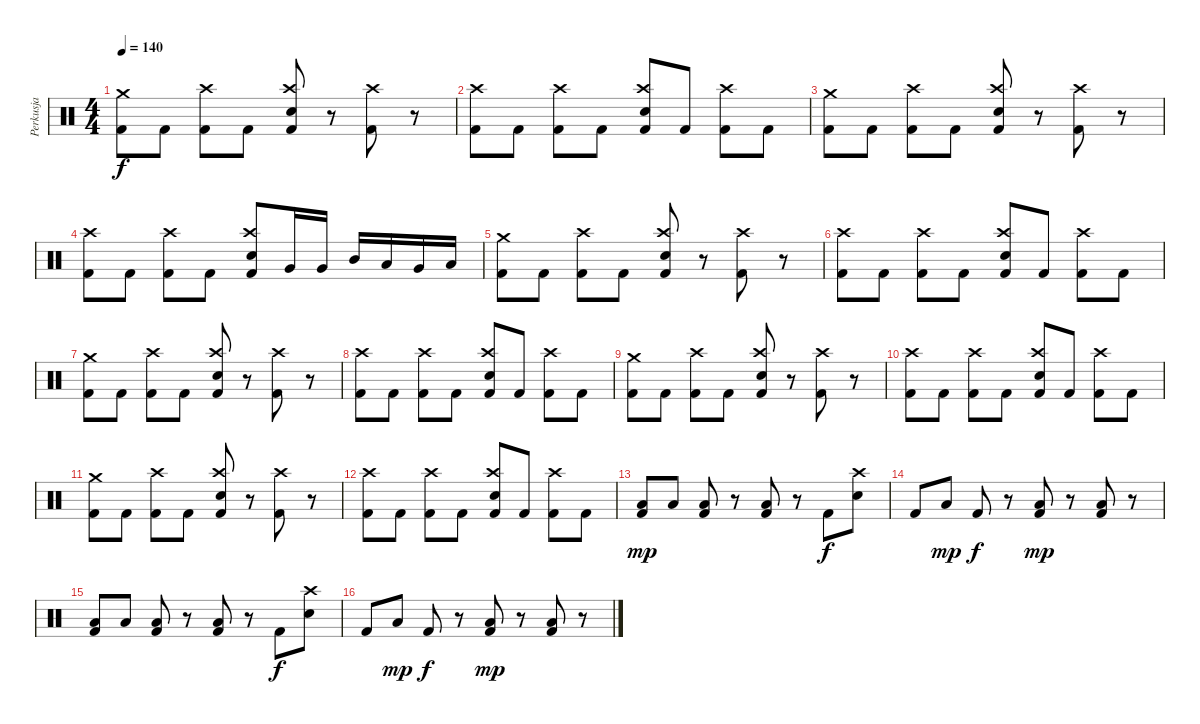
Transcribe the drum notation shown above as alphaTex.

\track ("Perkusja" "Perkusja") {instrument percussion}
\staff {score}
\articulation defaults
\ts (4 4)
\tempo 140
\clef neutral
\ks c
("Crash medium (hit)" "Kick (hit) 2").8{dy f} "Kick (hit) 2".8 ("Crash high (hit)" "Kick (hit) 2").8 "Kick (hit) 2".8 ("Crash high (hit)" "Electric Snare (hit)" "Kick (hit) 2").8 r.8 ("Crash high (hit)" "Kick (hit) 2").8 r.8 |
("Crash high (hit)" "Kick (hit) 2").8 "Kick (hit) 2".8 ("Crash high (hit)" "Kick (hit) 2").8 "Kick (hit) 2".8 ("Crash high (hit)" "Electric Snare (hit)" "Kick (hit) 2").8 "Kick (hit) 2".8 ("Crash high (hit)" "Kick (hit) 2").8 "Kick (hit) 2".8 |
("Crash medium (hit)" "Kick (hit) 2").8 "Kick (hit) 2".8 ("Crash high (hit)" "Kick (hit) 2").8 "Kick (hit) 2".8 ("Crash high (hit)" "Electric Snare (hit)" "Kick (hit) 2").8 r.8 ("Crash high (hit)" "Kick (hit) 2").8 r.8 |
("Crash high (hit)" "Kick (hit) 2").8 "Kick (hit) 2".8 ("Crash high (hit)" "Kick (hit) 2").8 "Kick (hit) 2".8 ("Crash high (hit)" "Electric Snare (hit)" "Kick (hit) 2").8 "Very Low Tom (hit)".16 "Very Low Tom (hit)".16 "Mid Tom (hit)".16 "Low Tom (hit)".16 "Very Low Tom (hit)".16 "Low Floor Tom (hit)".16 |
("Crash medium (hit)" "Kick (hit) 2").8 "Kick (hit) 2".8 ("Crash high (hit)" "Kick (hit) 2").8 "Kick (hit) 2".8 ("Crash high (hit)" "Electric Snare (hit)" "Kick (hit) 2").8 r.8 ("Crash high (hit)" "Kick (hit) 2").8 r.8 |
("Crash high (hit)" "Kick (hit) 2").8 "Kick (hit) 2".8 ("Crash high (hit)" "Kick (hit) 2").8 "Kick (hit) 2".8 ("Crash high (hit)" "Electric Snare (hit)" "Kick (hit) 2").8 "Kick (hit) 2".8 ("Crash high (hit)" "Kick (hit) 2").8 "Kick (hit) 2".8 |
("Crash medium (hit)" "Kick (hit) 2").8 "Kick (hit) 2".8 ("Crash high (hit)" "Kick (hit) 2").8 "Kick (hit) 2".8 ("Crash high (hit)" "Electric Snare (hit)" "Kick (hit) 2").8 r.8 ("Crash high (hit)" "Kick (hit) 2").8 r.8 |
("Crash high (hit)" "Kick (hit) 2").8 "Kick (hit) 2".8 ("Crash high (hit)" "Kick (hit) 2").8 "Kick (hit) 2".8 ("Crash high (hit)" "Electric Snare (hit)" "Kick (hit) 2").8 "Kick (hit) 2".8 ("Crash high (hit)" "Kick (hit) 2").8 "Kick (hit) 2".8 |
("Crash medium (hit)" "Kick (hit) 2").8 "Kick (hit) 2".8 ("Crash high (hit)" "Kick (hit) 2").8 "Kick (hit) 2".8 ("Crash high (hit)" "Electric Snare (hit)" "Kick (hit) 2").8 r.8 ("Crash high (hit)" "Kick (hit) 2").8 r.8 |
("Crash high (hit)" "Kick (hit) 2").8 "Kick (hit) 2".8 ("Crash high (hit)" "Kick (hit) 2").8 "Kick (hit) 2".8 ("Crash high (hit)" "Electric Snare (hit)" "Kick (hit) 2").8 "Kick (hit) 2".8 ("Crash high (hit)" "Kick (hit) 2").8 "Kick (hit) 2".8 |
("Crash medium (hit)" "Kick (hit) 2").8 "Kick (hit) 2".8 ("Crash high (hit)" "Kick (hit) 2").8 "Kick (hit) 2".8 ("Crash high (hit)" "Electric Snare (hit)" "Kick (hit) 2").8 r.8 ("Crash high (hit)" "Kick (hit) 2").8 r.8 |
("Crash high (hit)" "Kick (hit) 2").8 "Kick (hit) 2".8 ("Crash high (hit)" "Kick (hit) 2").8 "Kick (hit) 2".8 ("Crash high (hit)" "Electric Snare (hit)" "Kick (hit) 2").8 "Kick (hit) 2".8 ("Crash high (hit)" "Kick (hit) 2").8 "Kick (hit) 2".8 |
("Low Floor Tom (hit)" "Kick (hit) 2").8{dy mp} "Low Floor Tom (hit)".8 ("Low Floor Tom (hit)" "Kick (hit) 2").8 r.8 ("Low Floor Tom (hit)" "Kick (hit) 2").8 r.8 "Kick (hit) 2".8{dy f} ("Crash high (hit)" "Electric Snare (hit)").8 |
"Kick (hit) 2".8 "Low Floor Tom (hit)".8{dy mp} "Kick (hit) 2".8{dy f} r.8 ("Low Floor Tom (hit)" "Kick (hit) 2").8{dy mp} r.8 ("Low Floor Tom (hit)" "Kick (hit) 2").8 r.8 |
("Low Floor Tom (hit)" "Kick (hit) 2").8 "Low Floor Tom (hit)".8 ("Low Floor Tom (hit)" "Kick (hit) 2").8 r.8 ("Low Floor Tom (hit)" "Kick (hit) 2").8 r.8 "Kick (hit) 2".8{dy f} ("Crash high (hit)" "Electric Snare (hit)").8 |
"Kick (hit) 2".8 "Low Floor Tom (hit)".8{dy mp} "Kick (hit) 2".8{dy f} r.8 ("Low Floor Tom (hit)" "Kick (hit) 2").8{dy mp} r.8 ("Low Floor Tom (hit)" "Kick (hit) 2").8 r.8
